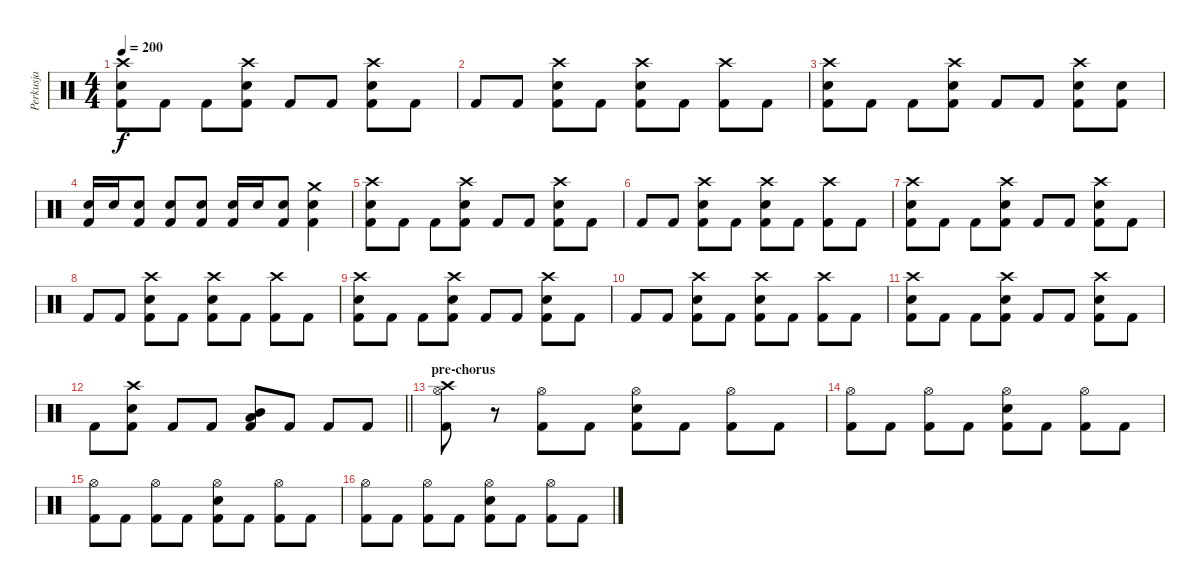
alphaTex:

\track ("Perkusja" "Perkusja") {instrument percussion}
\staff {score}
\articulation defaults
\ts (4 4)
\tempo 200
\clef neutral
\ks c
("Crash high (hit)" "Electric Snare (hit)" "Kick (hit) 2").8{dy f} "Kick (hit) 2".8 "Kick (hit) 2".8 ("Crash high (hit)" "Electric Snare (hit)" "Kick (hit) 2").8 "Kick (hit) 2".8 "Kick (hit) 2".8 ("Crash high (hit)" "Electric Snare (hit)" "Kick (hit) 2").8 "Kick (hit) 2".8 |
"Kick (hit) 2".8 "Kick (hit) 2".8 ("Crash high (hit)" "Electric Snare (hit)" "Kick (hit) 2").8 "Kick (hit) 2".8 ("Crash high (hit)" "Electric Snare (hit)" "Kick (hit) 2").8 "Kick (hit) 2".8 ("Crash high (hit)" "Kick (hit) 2").8 "Kick (hit) 2".8 |
("Crash high (hit)" "Electric Snare (hit)" "Kick (hit) 2").8 "Kick (hit) 2".8 "Kick (hit) 2".8 ("Crash high (hit)" "Electric Snare (hit)" "Kick (hit) 2").8 "Kick (hit) 2".8 "Kick (hit) 2".8 ("Crash high (hit)" "Electric Snare (hit)" "Kick (hit) 2").8 ("Electric Snare (hit)" "Kick (hit) 2").8 |
("Electric Snare (hit)" "Kick (hit) 2").16 "Electric Snare (hit)".16 ("Electric Snare (hit)" "Kick (hit) 2").8 ("Electric Snare (hit)" "Kick (hit) 2").8 ("Electric Snare (hit)" "Kick (hit) 2").8 ("Electric Snare (hit)" "Kick (hit) 2").16 "Electric Snare (hit)".16 ("Electric Snare (hit)" "Kick (hit) 2").8 ("Crash medium (hit)" "Electric Snare (hit)" "Kick (hit) 2").4 |
("Crash high (hit)" "Electric Snare (hit)" "Kick (hit) 2").8 "Kick (hit) 2".8 "Kick (hit) 2".8 ("Crash high (hit)" "Electric Snare (hit)" "Kick (hit) 2").8 "Kick (hit) 2".8 "Kick (hit) 2".8 ("Crash high (hit)" "Electric Snare (hit)" "Kick (hit) 2").8 "Kick (hit) 2".8 |
"Kick (hit) 2".8 "Kick (hit) 2".8 ("Crash high (hit)" "Electric Snare (hit)" "Kick (hit) 2").8 "Kick (hit) 2".8 ("Crash high (hit)" "Electric Snare (hit)" "Kick (hit) 2").8 "Kick (hit) 2".8 ("Crash high (hit)" "Kick (hit) 2").8 "Kick (hit) 2".8 |
("Crash high (hit)" "Electric Snare (hit)" "Kick (hit) 2").8 "Kick (hit) 2".8 "Kick (hit) 2".8 ("Crash high (hit)" "Electric Snare (hit)" "Kick (hit) 2").8 "Kick (hit) 2".8 "Kick (hit) 2".8 ("Crash high (hit)" "Electric Snare (hit)" "Kick (hit) 2").8 "Kick (hit) 2".8 |
"Kick (hit) 2".8 "Kick (hit) 2".8 ("Crash high (hit)" "Electric Snare (hit)" "Kick (hit) 2").8 "Kick (hit) 2".8 ("Crash high (hit)" "Electric Snare (hit)" "Kick (hit) 2").8 "Kick (hit) 2".8 ("Crash high (hit)" "Kick (hit) 2").8 "Kick (hit) 2".8 |
("Crash high (hit)" "Electric Snare (hit)" "Kick (hit) 2").8 "Kick (hit) 2".8 "Kick (hit) 2".8 ("Crash high (hit)" "Electric Snare (hit)" "Kick (hit) 2").8 "Kick (hit) 2".8 "Kick (hit) 2".8 ("Crash high (hit)" "Electric Snare (hit)" "Kick (hit) 2").8 "Kick (hit) 2".8 |
"Kick (hit) 2".8 "Kick (hit) 2".8 ("Crash high (hit)" "Electric Snare (hit)" "Kick (hit) 2").8 "Kick (hit) 2".8 ("Crash high (hit)" "Electric Snare (hit)" "Kick (hit) 2").8 "Kick (hit) 2".8 ("Crash high (hit)" "Kick (hit) 2").8 "Kick (hit) 2".8 |
("Crash high (hit)" "Electric Snare (hit)" "Kick (hit) 2").8 "Kick (hit) 2".8 "Kick (hit) 2".8 ("Crash high (hit)" "Electric Snare (hit)" "Kick (hit) 2").8 "Kick (hit) 2".8 "Kick (hit) 2".8 ("Crash high (hit)" "Electric Snare (hit)" "Kick (hit) 2").8 "Kick (hit) 2".8 |
\barLineRight lightlight "Kick (hit) 2".8
("Crash high (hit)" "Electric Snare (hit)" "Kick (hit) 2").8 "Kick (hit) 2".8 "Kick (hit) 2".8 ("Mid Tom (hit)" "Low Tom (hit)" "Kick (hit) 2").8 "Kick (hit) 2".8 "Kick (hit) 2".8 "Kick (hit) 2".8 |
\section ("" "pre-chorus")
("Crash high (hit)" "Hi-Hat (open)" "Kick (hit) 2").8 r.8 ("Hi-Hat (open)" "Kick (hit) 2").8 "Kick (hit) 2".8 ("Hi-Hat (open)" "Electric Snare (hit)" "Kick (hit) 2").8 "Kick (hit) 2".8 ("Hi-Hat (open)" "Kick (hit) 2").8 "Kick (hit) 2".8 |
("Hi-Hat (open)" "Kick (hit) 2").8 "Kick (hit) 2".8 ("Hi-Hat (open)" "Kick (hit) 2").8 "Kick (hit) 2".8 ("Hi-Hat (open)" "Electric Snare (hit)" "Kick (hit) 2").8 "Kick (hit) 2".8 ("Hi-Hat (open)" "Kick (hit) 2").8 "Kick (hit) 2".8 |
("Hi-Hat (open)" "Kick (hit) 2").8 "Kick (hit) 2".8 ("Hi-Hat (open)" "Kick (hit) 2").8 "Kick (hit) 2".8 ("Hi-Hat (open)" "Electric Snare (hit)" "Kick (hit) 2").8 "Kick (hit) 2".8 ("Hi-Hat (open)" "Kick (hit) 2").8 "Kick (hit) 2".8 |
("Hi-Hat (open)" "Kick (hit) 2").8 "Kick (hit) 2".8 ("Hi-Hat (open)" "Kick (hit) 2").8 "Kick (hit) 2".8 ("Hi-Hat (open)" "Electric Snare (hit)" "Kick (hit) 2").8 "Kick (hit) 2".8 ("Hi-Hat (open)" "Kick (hit) 2").8 "Kick (hit) 2".8
